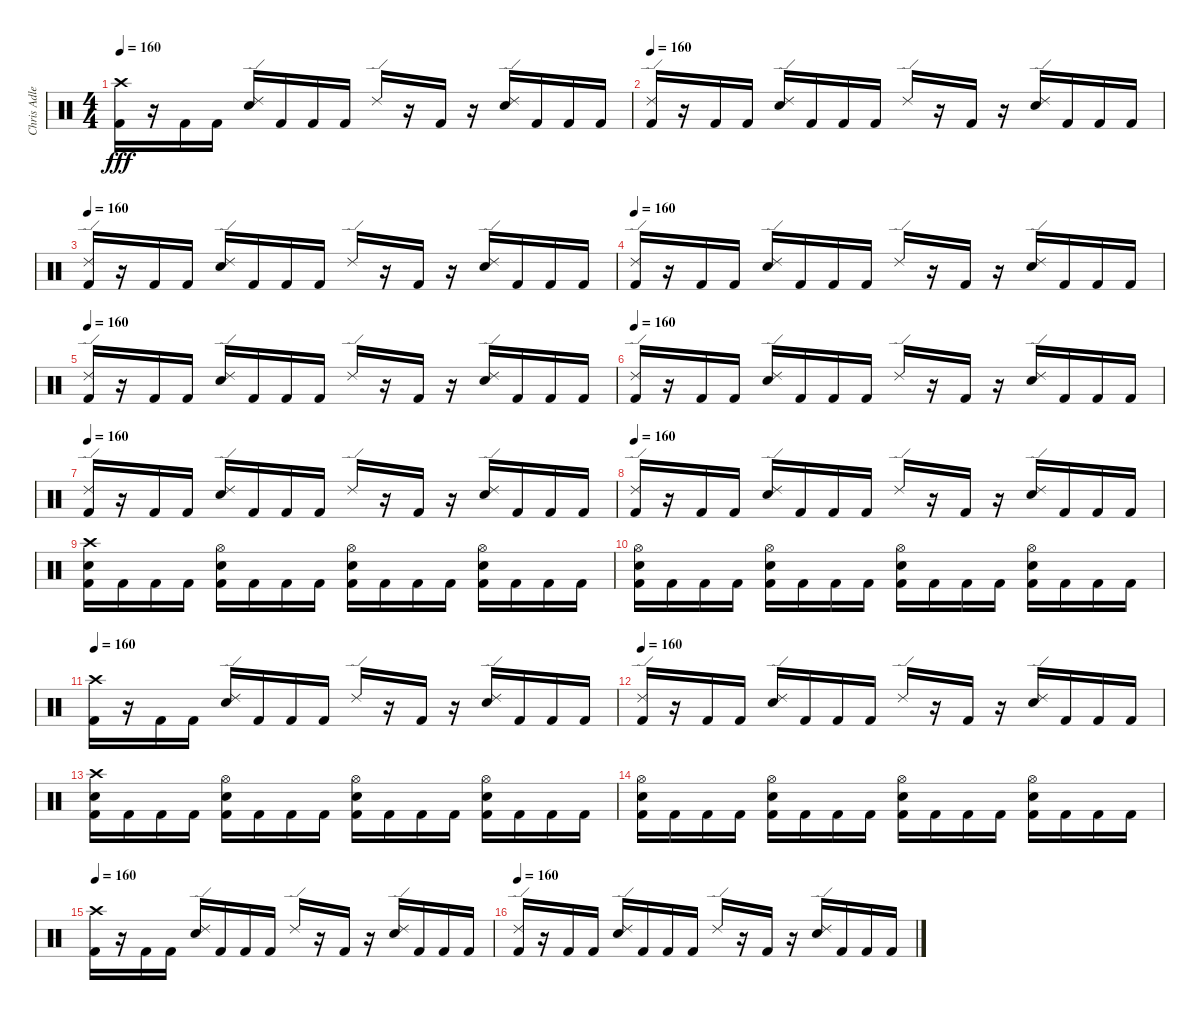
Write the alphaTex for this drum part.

\track ("Chris Adler" "Chris Adle") {instrument percussion}
\staff {score}
\articulation defaults
\ts (4 4)
\tempo 160
\clef neutral
\ks c
("Crash high (hit)" "Kick (hit) 2").16{dy fff} r.16 "Kick (hit) 2".16 "Kick (hit) 2".16 ("Ride (edge) 2" "Snare (hit) 2").16 "Kick (hit) 2".16 "Kick (hit) 2".16 "Kick (hit) 2".16 "Ride (edge) 2".16 r.16 "Kick (hit) 2".16 r.16 ("Ride (edge) 2" "Snare (hit) 2").16 "Kick (hit) 2".16 "Kick (hit) 2".16 "Kick (hit) 2".16 |
\tempo 160
("Ride (edge) 2" "Kick (hit) 2").16 r.16 "Kick (hit) 2".16 "Kick (hit) 2".16 ("Ride (edge) 2" "Snare (hit) 2").16 "Kick (hit) 2".16 "Kick (hit) 2".16 "Kick (hit) 2".16 "Ride (edge) 2".16 r.16 "Kick (hit) 2".16 r.16 ("Ride (edge) 2" "Snare (hit) 2").16 "Kick (hit) 2".16 "Kick (hit) 2".16 "Kick (hit) 2".16 |
\tempo 160
("Ride (edge) 2" "Kick (hit) 2").16 r.16 "Kick (hit) 2".16 "Kick (hit) 2".16 ("Ride (edge) 2" "Snare (hit) 2").16 "Kick (hit) 2".16 "Kick (hit) 2".16 "Kick (hit) 2".16 "Ride (edge) 2".16 r.16 "Kick (hit) 2".16 r.16 ("Ride (edge) 2" "Snare (hit) 2").16 "Kick (hit) 2".16 "Kick (hit) 2".16 "Kick (hit) 2".16 |
\tempo 160
("Ride (edge) 2" "Kick (hit) 2").16 r.16 "Kick (hit) 2".16 "Kick (hit) 2".16 ("Ride (edge) 2" "Snare (hit) 2").16 "Kick (hit) 2".16 "Kick (hit) 2".16 "Kick (hit) 2".16 "Ride (edge) 2".16 r.16 "Kick (hit) 2".16 r.16 ("Ride (edge) 2" "Snare (hit) 2").16 "Kick (hit) 2".16 "Kick (hit) 2".16 "Kick (hit) 2".16 |
\tempo 160
("Ride (edge) 2" "Kick (hit) 2").16 r.16 "Kick (hit) 2".16 "Kick (hit) 2".16 ("Ride (edge) 2" "Snare (hit) 2").16 "Kick (hit) 2".16 "Kick (hit) 2".16 "Kick (hit) 2".16 "Ride (edge) 2".16 r.16 "Kick (hit) 2".16 r.16 ("Ride (edge) 2" "Snare (hit) 2").16 "Kick (hit) 2".16 "Kick (hit) 2".16 "Kick (hit) 2".16 |
\tempo 160
("Ride (edge) 2" "Kick (hit) 2").16 r.16 "Kick (hit) 2".16 "Kick (hit) 2".16 ("Ride (edge) 2" "Snare (hit) 2").16 "Kick (hit) 2".16 "Kick (hit) 2".16 "Kick (hit) 2".16 "Ride (edge) 2".16 r.16 "Kick (hit) 2".16 r.16 ("Ride (edge) 2" "Snare (hit) 2").16 "Kick (hit) 2".16 "Kick (hit) 2".16 "Kick (hit) 2".16 |
\tempo 160
("Ride (edge) 2" "Kick (hit) 2").16 r.16 "Kick (hit) 2".16 "Kick (hit) 2".16 ("Ride (edge) 2" "Snare (hit) 2").16 "Kick (hit) 2".16 "Kick (hit) 2".16 "Kick (hit) 2".16 "Ride (edge) 2".16 r.16 "Kick (hit) 2".16 r.16 ("Ride (edge) 2" "Snare (hit) 2").16 "Kick (hit) 2".16 "Kick (hit) 2".16 "Kick (hit) 2".16 |
\tempo 160
("Ride (edge) 2" "Kick (hit) 2").16 r.16 "Kick (hit) 2".16 "Kick (hit) 2".16 ("Ride (edge) 2" "Snare (hit) 2").16 "Kick (hit) 2".16 "Kick (hit) 2".16 "Kick (hit) 2".16 "Ride (edge) 2".16 r.16 "Kick (hit) 2".16 r.16 ("Ride (edge) 2" "Snare (hit) 2").16 "Kick (hit) 2".16 "Kick (hit) 2".16 "Kick (hit) 2".16 |
("Crash high (hit)" "Snare (hit) 2" "Kick (hit) 2").16 "Kick (hit) 2".16 "Kick (hit) 2".16 "Kick (hit) 2".16 ("Hi-Hat (open)" "Snare (hit) 2" "Kick (hit) 2").16 "Kick (hit) 2".16 "Kick (hit) 2".16 "Kick (hit) 2".16 ("Hi-Hat (open)" "Snare (hit) 2" "Kick (hit) 2").16 "Kick (hit) 2".16 "Kick (hit) 2".16 "Kick (hit) 2".16 ("Hi-Hat (open)" "Snare (hit) 2" "Kick (hit) 2").16 "Kick (hit) 2".16 "Kick (hit) 2".16 "Kick (hit) 2".16 |
("Hi-Hat (open)" "Snare (hit) 2" "Kick (hit) 2").16 "Kick (hit) 2".16 "Kick (hit) 2".16 "Kick (hit) 2".16 ("Hi-Hat (open)" "Snare (hit) 2" "Kick (hit) 2").16 "Kick (hit) 2".16 "Kick (hit) 2".16 "Kick (hit) 2".16 ("Hi-Hat (open)" "Snare (hit) 2" "Kick (hit) 2").16 "Kick (hit) 2".16 "Kick (hit) 2".16 "Kick (hit) 2".16 ("Hi-Hat (open)" "Snare (hit) 2" "Kick (hit) 2").16 "Kick (hit) 2".16 "Kick (hit) 2".16 "Kick (hit) 2".16 |
\tempo 160
("Crash high (hit)" "Kick (hit) 2").16 r.16 "Kick (hit) 2".16 "Kick (hit) 2".16 ("Ride (edge) 2" "Snare (hit) 2").16 "Kick (hit) 2".16 "Kick (hit) 2".16 "Kick (hit) 2".16 "Ride (edge) 2".16 r.16 "Kick (hit) 2".16 r.16 ("Ride (edge) 2" "Snare (hit) 2").16 "Kick (hit) 2".16 "Kick (hit) 2".16 "Kick (hit) 2".16 |
\tempo 160
("Ride (edge) 2" "Kick (hit) 2").16 r.16 "Kick (hit) 2".16 "Kick (hit) 2".16 ("Ride (edge) 2" "Snare (hit) 2").16 "Kick (hit) 2".16 "Kick (hit) 2".16 "Kick (hit) 2".16 "Ride (edge) 2".16 r.16 "Kick (hit) 2".16 r.16 ("Ride (edge) 2" "Snare (hit) 2").16 "Kick (hit) 2".16 "Kick (hit) 2".16 "Kick (hit) 2".16 |
("Crash high (hit)" "Snare (hit) 2" "Kick (hit) 2").16 "Kick (hit) 2".16 "Kick (hit) 2".16 "Kick (hit) 2".16 ("Hi-Hat (open)" "Snare (hit) 2" "Kick (hit) 2").16 "Kick (hit) 2".16 "Kick (hit) 2".16 "Kick (hit) 2".16 ("Hi-Hat (open)" "Snare (hit) 2" "Kick (hit) 2").16 "Kick (hit) 2".16 "Kick (hit) 2".16 "Kick (hit) 2".16 ("Hi-Hat (open)" "Snare (hit) 2" "Kick (hit) 2").16 "Kick (hit) 2".16 "Kick (hit) 2".16 "Kick (hit) 2".16 |
("Hi-Hat (open)" "Snare (hit) 2" "Kick (hit) 2").16 "Kick (hit) 2".16 "Kick (hit) 2".16 "Kick (hit) 2".16 ("Hi-Hat (open)" "Snare (hit) 2" "Kick (hit) 2").16 "Kick (hit) 2".16 "Kick (hit) 2".16 "Kick (hit) 2".16 ("Hi-Hat (open)" "Snare (hit) 2" "Kick (hit) 2").16 "Kick (hit) 2".16 "Kick (hit) 2".16 "Kick (hit) 2".16 ("Hi-Hat (open)" "Snare (hit) 2" "Kick (hit) 2").16 "Kick (hit) 2".16 "Kick (hit) 2".16 "Kick (hit) 2".16 |
\tempo 160
("Crash high (hit)" "Kick (hit) 2").16 r.16 "Kick (hit) 2".16 "Kick (hit) 2".16 ("Ride (edge) 2" "Snare (hit) 2").16 "Kick (hit) 2".16 "Kick (hit) 2".16 "Kick (hit) 2".16 "Ride (edge) 2".16 r.16 "Kick (hit) 2".16 r.16 ("Ride (edge) 2" "Snare (hit) 2").16 "Kick (hit) 2".16 "Kick (hit) 2".16 "Kick (hit) 2".16 |
\tempo 160
("Ride (edge) 2" "Kick (hit) 2").16 r.16 "Kick (hit) 2".16 "Kick (hit) 2".16 ("Ride (edge) 2" "Snare (hit) 2").16 "Kick (hit) 2".16 "Kick (hit) 2".16 "Kick (hit) 2".16 "Ride (edge) 2".16 r.16 "Kick (hit) 2".16 r.16 ("Ride (edge) 2" "Snare (hit) 2").16 "Kick (hit) 2".16 "Kick (hit) 2".16 "Kick (hit) 2".16
